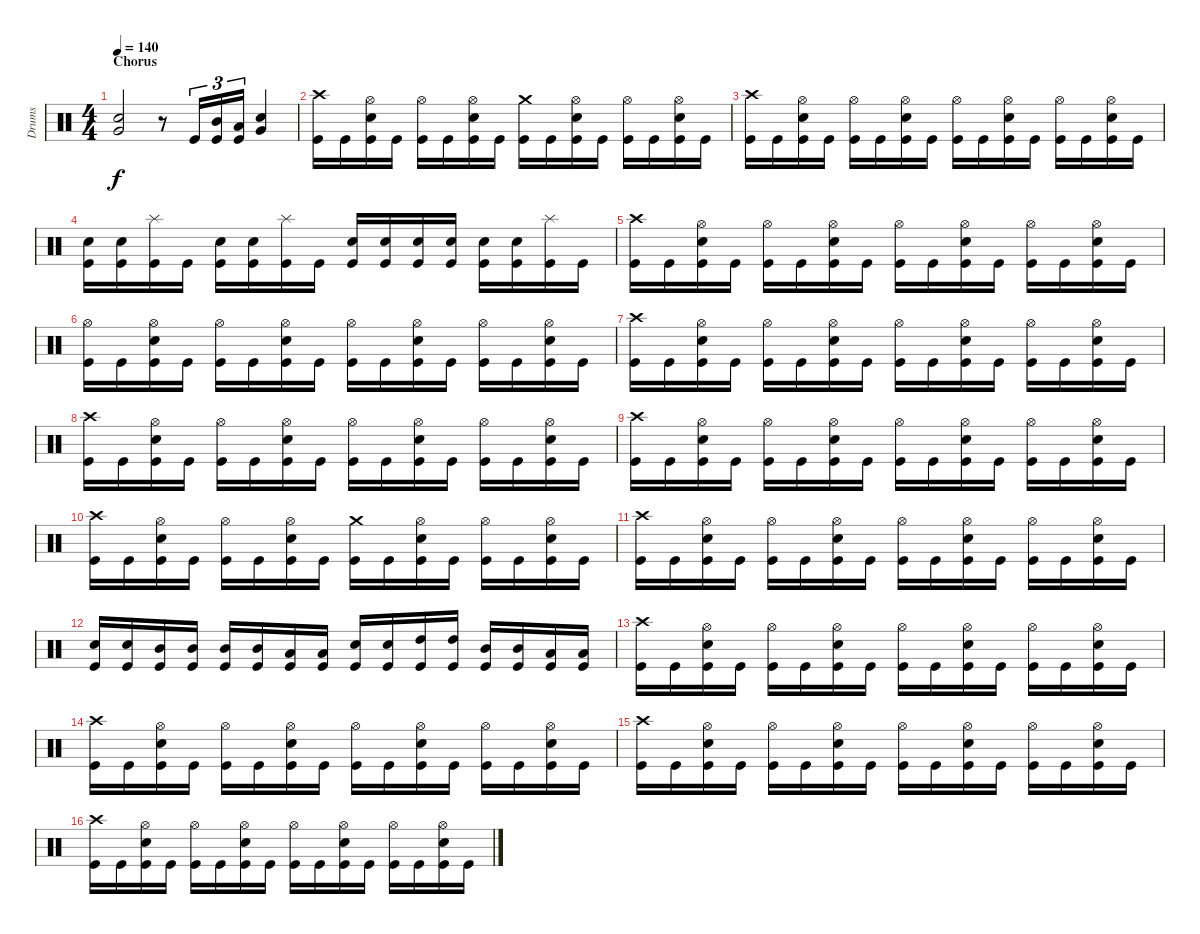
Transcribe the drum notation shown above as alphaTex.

\track ("Drums" "Drums") {instrument percussion}
\staff {score}
\articulation defaults
\ts (4 4)
\section ("" "Chorus")
\tempo 140
\clef neutral
\ks c
("Very Low Tom (hit)" "Electric Snare (hit)").2{dy f} r.8 "Kick (hit)".16{tu (3 2)} ("Mid Tom (hit)" "Kick (hit)").16{tu (3 2)} ("Low Tom (hit)" "Kick (hit)").16{tu (3 2)} ("Very Low Tom (hit)" "Electric Snare (hit)").4 |
("Crash high (hit)" "Kick (hit)").16 "Kick (hit)".16 ("Hi-Hat (open)" "Electric Snare (hit)" "Kick (hit)").16 "Kick (hit)".16 ("Hi-Hat (open)" "Kick (hit)").16 "Kick (hit)".16 ("Hi-Hat (open)" "Electric Snare (hit)" "Kick (hit)").16 "Kick (hit)".16 ("Crash medium (hit)" "Kick (hit)").16 "Kick (hit)".16 ("Hi-Hat (open)" "Electric Snare (hit)" "Kick (hit)").16 "Kick (hit)".16 ("Hi-Hat (open)" "Kick (hit)").16 "Kick (hit)".16 ("Hi-Hat (open)" "Electric Snare (hit)" "Kick (hit)").16 "Kick (hit)".16 |
("Crash high (hit)" "Kick (hit)").16 "Kick (hit)".16 ("Hi-Hat (open)" "Electric Snare (hit)" "Kick (hit)").16 "Kick (hit)".16 ("Hi-Hat (open)" "Kick (hit)").16 "Kick (hit)".16 ("Hi-Hat (open)" "Electric Snare (hit)" "Kick (hit)").16 "Kick (hit)".16 ("Hi-Hat (open)" "Kick (hit)").16 "Kick (hit)".16 ("Hi-Hat (open)" "Electric Snare (hit)" "Kick (hit)").16 "Kick (hit)".16 ("Hi-Hat (open)" "Kick (hit)").16 "Kick (hit)".16 ("Hi-Hat (open)" "Electric Snare (hit)" "Kick (hit)").16 "Kick (hit)".16 |
("Electric Snare (hit)" "Kick (hit)").16 ("Electric Snare (hit)" "Kick (hit)").16 ("Splash (hit)" "Kick (hit)").16 "Kick (hit)".16 ("Electric Snare (hit)" "Kick (hit)").16 ("Electric Snare (hit)" "Kick (hit)").16 ("Splash (hit)" "Kick (hit)").16 "Kick (hit)".16 ("Electric Snare (hit)" "Kick (hit)").16 ("Electric Snare (hit)" "Kick (hit)").16 ("Electric Snare (hit)" "Kick (hit)").16 ("Electric Snare (hit)" "Kick (hit)").16 ("Electric Snare (hit)" "Kick (hit)").16 ("Electric Snare (hit)" "Kick (hit)").16 ("Splash (hit)" "Kick (hit)").16 "Kick (hit)".16 |
("Crash high (hit)" "Kick (hit)").16 "Kick (hit)".16 ("Hi-Hat (open)" "Electric Snare (hit)" "Kick (hit)").16 "Kick (hit)".16 ("Hi-Hat (open)" "Kick (hit)").16 "Kick (hit)".16 ("Hi-Hat (open)" "Electric Snare (hit)" "Kick (hit)").16 "Kick (hit)".16 ("Hi-Hat (open)" "Kick (hit)").16 "Kick (hit)".16 ("Hi-Hat (open)" "Electric Snare (hit)" "Kick (hit)").16 "Kick (hit)".16 ("Hi-Hat (open)" "Kick (hit)").16 "Kick (hit)".16 ("Hi-Hat (open)" "Electric Snare (hit)" "Kick (hit)").16 "Kick (hit)".16 |
("Hi-Hat (open)" "Kick (hit)").16 "Kick (hit)".16 ("Hi-Hat (open)" "Electric Snare (hit)" "Kick (hit)").16 "Kick (hit)".16 ("Hi-Hat (open)" "Kick (hit)").16 "Kick (hit)".16 ("Hi-Hat (open)" "Electric Snare (hit)" "Kick (hit)").16 "Kick (hit)".16 ("Hi-Hat (open)" "Kick (hit)").16 "Kick (hit)".16 ("Hi-Hat (open)" "Electric Snare (hit)" "Kick (hit)").16 "Kick (hit)".16 ("Hi-Hat (open)" "Kick (hit)").16 "Kick (hit)".16 ("Hi-Hat (open)" "Electric Snare (hit)" "Kick (hit)").16 "Kick (hit)".16 |
("Crash high (hit)" "Kick (hit)").16 "Kick (hit)".16 ("Hi-Hat (open)" "Electric Snare (hit)" "Kick (hit)").16 "Kick (hit)".16 ("Hi-Hat (open)" "Kick (hit)").16 "Kick (hit)".16 ("Hi-Hat (open)" "Electric Snare (hit)" "Kick (hit)").16 "Kick (hit)".16 ("Hi-Hat (open)" "Kick (hit)").16 "Kick (hit)".16 ("Hi-Hat (open)" "Electric Snare (hit)" "Kick (hit)").16 "Kick (hit)".16 ("Hi-Hat (open)" "Kick (hit)").16 "Kick (hit)".16 ("Hi-Hat (open)" "Electric Snare (hit)" "Kick (hit)").16 "Kick (hit)".16 |
("Crash high (hit)" "Kick (hit)").16 "Kick (hit)".16 ("Hi-Hat (open)" "Electric Snare (hit)" "Kick (hit)").16 "Kick (hit)".16 ("Hi-Hat (open)" "Kick (hit)").16 "Kick (hit)".16 ("Hi-Hat (open)" "Electric Snare (hit)" "Kick (hit)").16 "Kick (hit)".16 ("Hi-Hat (open)" "Kick (hit)").16 "Kick (hit)".16 ("Hi-Hat (open)" "Electric Snare (hit)" "Kick (hit)").16 "Kick (hit)".16 ("Hi-Hat (open)" "Kick (hit)").16 "Kick (hit)".16 ("Hi-Hat (open)" "Electric Snare (hit)" "Kick (hit)").16 "Kick (hit)".16 |
("Crash high (hit)" "Kick (hit)").16 "Kick (hit)".16 ("Hi-Hat (open)" "Electric Snare (hit)" "Kick (hit)").16 "Kick (hit)".16 ("Hi-Hat (open)" "Kick (hit)").16 "Kick (hit)".16 ("Hi-Hat (open)" "Electric Snare (hit)" "Kick (hit)").16 "Kick (hit)".16 ("Hi-Hat (open)" "Kick (hit)").16 "Kick (hit)".16 ("Hi-Hat (open)" "Electric Snare (hit)" "Kick (hit)").16 "Kick (hit)".16 ("Hi-Hat (open)" "Kick (hit)").16 "Kick (hit)".16 ("Hi-Hat (open)" "Electric Snare (hit)" "Kick (hit)").16 "Kick (hit)".16 |
("Crash high (hit)" "Kick (hit)").16 "Kick (hit)".16 ("Hi-Hat (open)" "Electric Snare (hit)" "Kick (hit)").16 "Kick (hit)".16 ("Hi-Hat (open)" "Kick (hit)").16 "Kick (hit)".16 ("Hi-Hat (open)" "Electric Snare (hit)" "Kick (hit)").16 "Kick (hit)".16 ("Crash medium (hit)" "Kick (hit)").16 "Kick (hit)".16 ("Hi-Hat (open)" "Electric Snare (hit)" "Kick (hit)").16 "Kick (hit)".16 ("Hi-Hat (open)" "Kick (hit)").16 "Kick (hit)".16 ("Hi-Hat (open)" "Electric Snare (hit)" "Kick (hit)").16 "Kick (hit)".16 |
("Crash high (hit)" "Kick (hit)").16 "Kick (hit)".16 ("Hi-Hat (open)" "Electric Snare (hit)" "Kick (hit)").16 "Kick (hit)".16 ("Hi-Hat (open)" "Kick (hit)").16 "Kick (hit)".16 ("Hi-Hat (open)" "Electric Snare (hit)" "Kick (hit)").16 "Kick (hit)".16 ("Hi-Hat (open)" "Kick (hit)").16 "Kick (hit)".16 ("Hi-Hat (open)" "Electric Snare (hit)" "Kick (hit)").16 "Kick (hit)".16 ("Hi-Hat (open)" "Kick (hit)").16 "Kick (hit)".16 ("Hi-Hat (open)" "Electric Snare (hit)" "Kick (hit)").16 "Kick (hit)".16 |
("Electric Snare (hit)" "Kick (hit)").16 ("Electric Snare (hit)" "Kick (hit)").16 ("Mid Tom (hit)" "Kick (hit)").16 ("Mid Tom (hit)" "Kick (hit)").16 ("Mid Tom (hit)" "Kick (hit)").16 ("Mid Tom (hit)" "Kick (hit)").16 ("Low Tom (hit)" "Kick (hit)").16 ("Low Tom (hit)" "Kick (hit)").16 ("Electric Snare (hit)" "Kick (hit)").16 ("Electric Snare (hit)" "Kick (hit)").16 ("High Tom (hit)" "Kick (hit)").16 ("High Tom (hit)" "Kick (hit)").16 ("Mid Tom (hit)" "Kick (hit)").16 ("Mid Tom (hit)" "Kick (hit)").16 ("Low Tom (hit)" "Kick (hit)").16 ("Low Tom (hit)" "Kick (hit)").16 |
("Crash high (hit)" "Kick (hit)").16 "Kick (hit)".16 ("Hi-Hat (open)" "Electric Snare (hit)" "Kick (hit)").16 "Kick (hit)".16 ("Hi-Hat (open)" "Kick (hit)").16 "Kick (hit)".16 ("Hi-Hat (open)" "Electric Snare (hit)" "Kick (hit)").16 "Kick (hit)".16 ("Hi-Hat (open)" "Kick (hit)").16 "Kick (hit)".16 ("Hi-Hat (open)" "Electric Snare (hit)" "Kick (hit)").16 "Kick (hit)".16 ("Hi-Hat (open)" "Kick (hit)").16 "Kick (hit)".16 ("Hi-Hat (open)" "Electric Snare (hit)" "Kick (hit)").16 "Kick (hit)".16 |
("Crash high (hit)" "Kick (hit)").16 "Kick (hit)".16 ("Hi-Hat (open)" "Electric Snare (hit)" "Kick (hit)").16 "Kick (hit)".16 ("Hi-Hat (open)" "Kick (hit)").16 "Kick (hit)".16 ("Hi-Hat (open)" "Electric Snare (hit)" "Kick (hit)").16 "Kick (hit)".16 ("Hi-Hat (open)" "Kick (hit)").16 "Kick (hit)".16 ("Hi-Hat (open)" "Electric Snare (hit)" "Kick (hit)").16 "Kick (hit)".16 ("Hi-Hat (open)" "Kick (hit)").16 "Kick (hit)".16 ("Hi-Hat (open)" "Electric Snare (hit)" "Kick (hit)").16 "Kick (hit)".16 |
("Crash high (hit)" "Kick (hit)").16 "Kick (hit)".16 ("Hi-Hat (open)" "Electric Snare (hit)" "Kick (hit)").16 "Kick (hit)".16 ("Hi-Hat (open)" "Kick (hit)").16 "Kick (hit)".16 ("Hi-Hat (open)" "Electric Snare (hit)" "Kick (hit)").16 "Kick (hit)".16 ("Hi-Hat (open)" "Kick (hit)").16 "Kick (hit)".16 ("Hi-Hat (open)" "Electric Snare (hit)" "Kick (hit)").16 "Kick (hit)".16 ("Hi-Hat (open)" "Kick (hit)").16 "Kick (hit)".16 ("Hi-Hat (open)" "Electric Snare (hit)" "Kick (hit)").16 "Kick (hit)".16 |
("Crash high (hit)" "Kick (hit)").16 "Kick (hit)".16 ("Hi-Hat (open)" "Electric Snare (hit)" "Kick (hit)").16 "Kick (hit)".16 ("Hi-Hat (open)" "Kick (hit)").16 "Kick (hit)".16 ("Hi-Hat (open)" "Electric Snare (hit)" "Kick (hit)").16 "Kick (hit)".16 ("Hi-Hat (open)" "Kick (hit)").16 "Kick (hit)".16 ("Hi-Hat (open)" "Electric Snare (hit)" "Kick (hit)").16 "Kick (hit)".16 ("Hi-Hat (open)" "Kick (hit)").16 "Kick (hit)".16 ("Hi-Hat (open)" "Electric Snare (hit)" "Kick (hit)").16 "Kick (hit)".16
